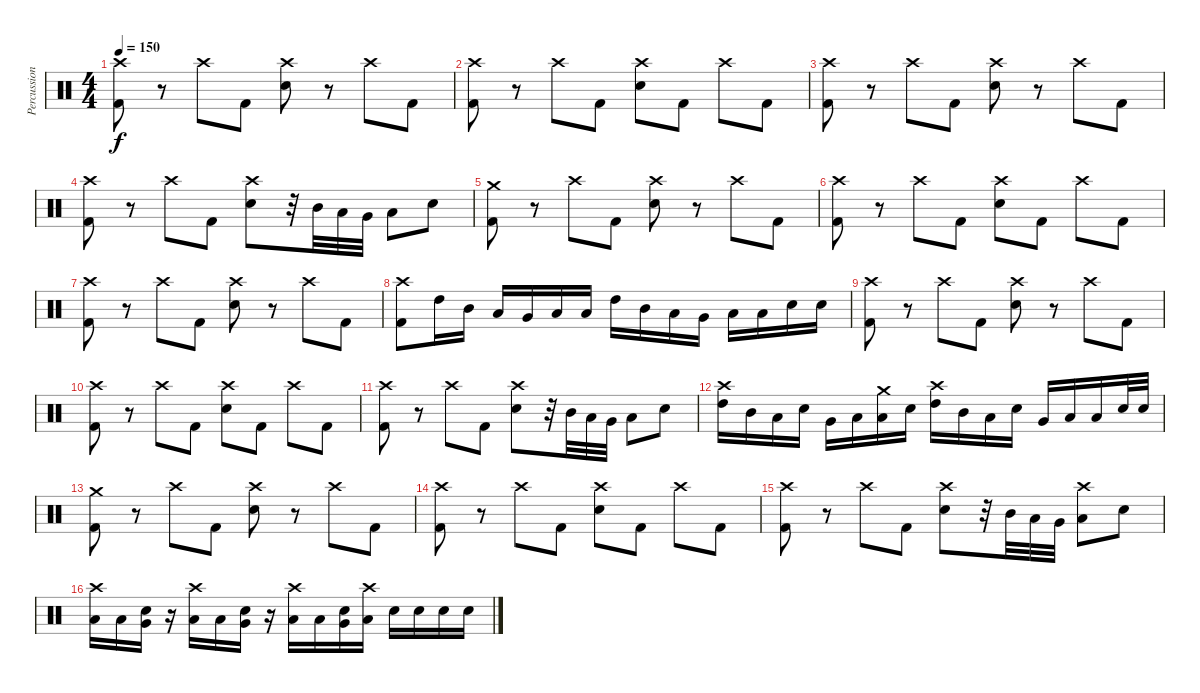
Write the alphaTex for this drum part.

\track ("Percussion" "Percussion") {instrument percussion}
\staff {score}
\articulation defaults
\ts (4 4)
\tempo 150
\clef neutral
\ks c
("Crash high (hit)" "Kick (hit) 2").8{dy f} r.8 "Crash high (hit)".8 "Kick (hit) 2".8 ("Crash high (hit)" "Snare (hit) 2").8 r.8 "Crash high (hit)".8 "Kick (hit) 2".8 |
("Crash high (hit)" "Kick (hit) 2").8 r.8 "Crash high (hit)".8 "Kick (hit) 2".8 ("Crash high (hit)" "Snare (hit) 2").8 "Kick (hit) 2".8 "Crash high (hit)".8 "Kick (hit) 2".8 |
("Crash high (hit)" "Kick (hit) 2").8 r.8 "Crash high (hit)".8 "Kick (hit) 2".8 ("Crash high (hit)" "Snare (hit) 2").8 r.8 "Crash high (hit)".8 "Kick (hit) 2".8 |
("Crash high (hit)" "Kick (hit) 2").8 r.8 "Crash high (hit)".8 "Kick (hit) 2".8 ("Crash high (hit)" "Snare (hit) 2").8 r.32 "Mid Tom (hit)".32 "Low Tom (hit)".32 "Very Low Tom (hit)".32 "Low Floor Tom (hit)".8 "Snare (hit) 2".8 |
("Crash medium (hit)" "Kick (hit) 2").8 r.8 "Crash high (hit)".8 "Kick (hit) 2".8 ("Crash high (hit)" "Snare (hit) 2").8 r.8 "Crash high (hit)".8 "Kick (hit) 2".8 |
("Crash high (hit)" "Kick (hit) 2").8 r.8 "Crash high (hit)".8 "Kick (hit) 2".8 ("Crash high (hit)" "Snare (hit) 2").8 "Kick (hit) 2".8 "Crash high (hit)".8 "Kick (hit) 2".8 |
("Crash high (hit)" "Kick (hit) 2").8 r.8 "Crash high (hit)".8 "Kick (hit) 2".8 ("Crash high (hit)" "Snare (hit) 2").8 r.8 "Crash high (hit)".8 "Kick (hit) 2".8 |
("Crash high (hit)" "Kick (hit) 2").8 "High Tom (hit)".16 "Mid Tom (hit)".16 "Low Tom (hit)".16 "Very Low Tom (hit)".16 "Low Tom (hit)".16 "Low Floor Tom (hit)".16 "High Tom (hit)".16 "Mid Tom (hit)".16 "Low Tom (hit)".16 "Very Low Tom (hit)".16 "Low Tom (hit)".16 "Low Floor Tom (hit)".16 "Snare (hit) 2".16 "Snare (hit) 2".16 |
("Crash high (hit)" "Kick (hit) 2").8 r.8 "Crash high (hit)".8 "Kick (hit) 2".8 ("Crash high (hit)" "Snare (hit) 2").8 r.8 "Crash high (hit)".8 "Kick (hit) 2".8 |
("Crash high (hit)" "Kick (hit) 2").8 r.8 "Crash high (hit)".8 "Kick (hit) 2".8 ("Crash high (hit)" "Snare (hit) 2").8 "Kick (hit) 2".8 "Crash high (hit)".8 "Kick (hit) 2".8 |
("Crash high (hit)" "Kick (hit) 2").8 r.8 "Crash high (hit)".8 "Kick (hit) 2".8 ("Crash high (hit)" "Snare (hit) 2").8 r.32 "Mid Tom (hit)".32 "Low Tom (hit)".32 "Very Low Tom (hit)".32 "Low Floor Tom (hit)".8 "Snare (hit) 2".8 |
("Crash high (hit)" "High Tom (hit)").16 "Mid Tom (hit)".16 "Low Tom (hit)".16 "Snare (hit) 2".16 "Very Low Tom (hit)".16 "Low Tom (hit)".16 ("Crash medium (hit)" "Low Floor Tom (hit)").16 "Snare (hit) 2".16 ("Crash high (hit)" "High Tom (hit)").16 "Mid Tom (hit)".16 "Low Tom (hit)".16 "Snare (hit) 2".16 "Very Low Tom (hit)".16 "Low Tom (hit)".16 "Low Floor Tom (hit)".16 "Snare (hit) 2".32 "Snare (hit) 2".32 |
("Crash medium (hit)" "Kick (hit) 2").8 r.8 "Crash high (hit)".8 "Kick (hit) 2".8 ("Crash high (hit)" "Snare (hit) 2").8 r.8 "Crash high (hit)".8 "Kick (hit) 2".8 |
("Crash high (hit)" "Kick (hit) 2").8 r.8 "Crash high (hit)".8 "Kick (hit) 2".8 ("Crash high (hit)" "Snare (hit) 2").8 "Kick (hit) 2".8 "Crash high (hit)".8 "Kick (hit) 2".8 |
("Crash high (hit)" "Kick (hit) 2").8 r.8 "Crash high (hit)".8 "Kick (hit) 2".8 ("Crash high (hit)" "Snare (hit) 2").8 r.32 "Mid Tom (hit)".32 "Low Tom (hit)".32 "Very Low Tom (hit)".32 ("Crash high (hit)" "Low Floor Tom (hit)").8 "Snare (hit) 2".8 |
("Crash high (hit)" "Low Tom (hit)").16 "Low Tom (hit)".16 ("Very Low Tom (hit)" "Snare (hit) 2").16 r.16 ("Crash high (hit)" "Low Tom (hit)").16 "Low Tom (hit)".16 ("Very Low Tom (hit)" "Snare (hit) 2").16 r.16 ("Crash high (hit)" "Low Tom (hit)").16 "Low Tom (hit)".16 ("Very Low Tom (hit)" "Snare (hit) 2").16 ("Crash high (hit)" "Low Tom (hit)").16 "Snare (hit) 2".16 "Snare (hit) 2".16 "Snare (hit) 2".16 "Snare (hit) 2".16
